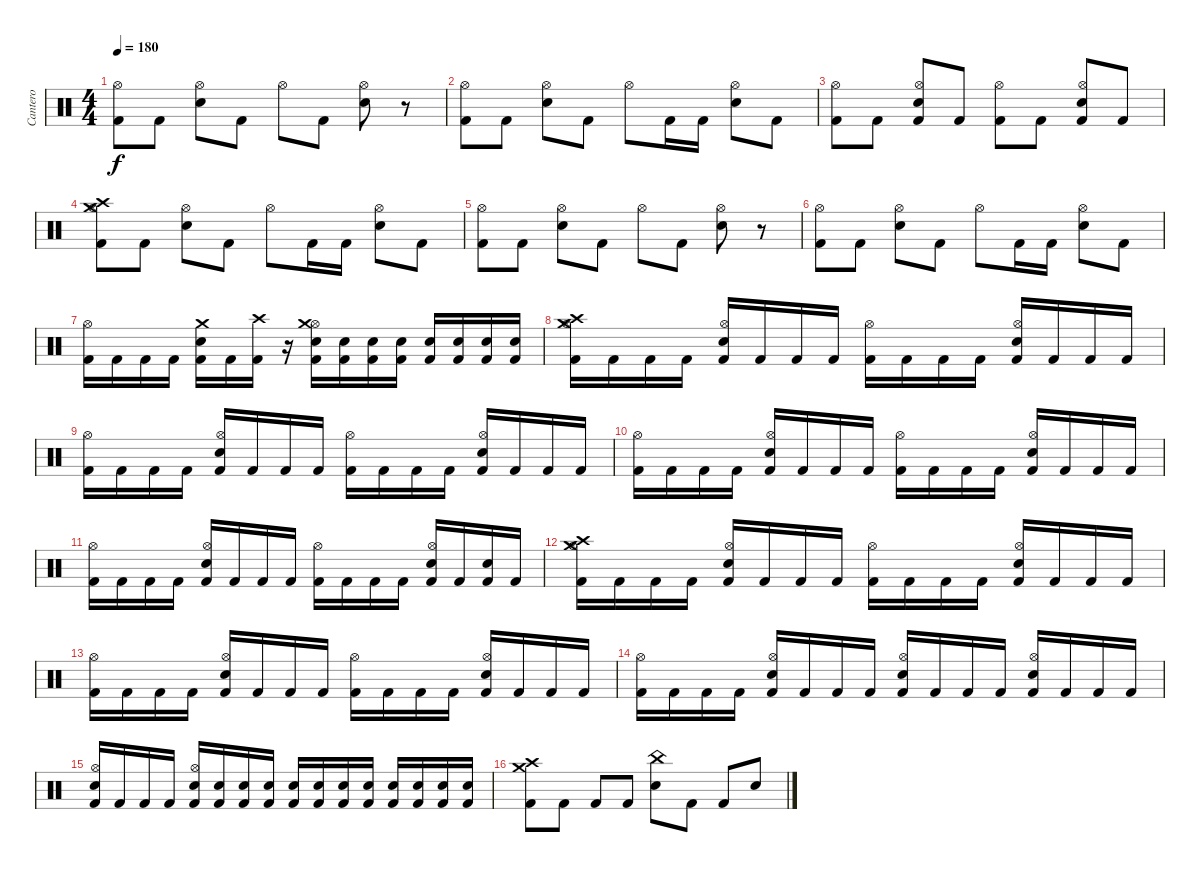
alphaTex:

\track ("Cantero" "Cantero") {instrument percussion}
\staff {score}
\articulation defaults
\ts (4 4)
\tempo 180
\clef neutral
\ks c
("Kick (hit) 2" "Hi-Hat (open)").8{dy f} "Kick (hit) 2".8 ("Electric Snare (hit)" "Hi-Hat (open)").8 "Kick (hit) 2".8 "Hi-Hat (open)".8 "Kick (hit) 2".8 ("Electric Snare (hit)" "Hi-Hat (open)").8 r.8 |
("Kick (hit) 2" "Hi-Hat (open)").8 "Kick (hit) 2".8 ("Electric Snare (hit)" "Hi-Hat (open)").8 "Kick (hit) 2".8 "Hi-Hat (open)".8 "Kick (hit) 2".16 "Kick (hit) 2".16 ("Electric Snare (hit)" "Hi-Hat (open)").8 "Kick (hit) 2".8 |
("Kick (hit) 2" "Hi-Hat (open)").8 "Kick (hit) 2".8 ("Electric Snare (hit)" "Hi-Hat (open)" "Kick (hit) 2").8 "Kick (hit) 2".8 ("Hi-Hat (open)" "Kick (hit) 2").8 "Kick (hit) 2".8 ("Electric Snare (hit)" "Hi-Hat (open)" "Kick (hit) 2").8 "Kick (hit) 2".8 |
("Kick (hit) 2" "Hi-Hat (open)" "Crash high (hit)" "Crash medium (hit)").8 "Kick (hit) 2".8 ("Electric Snare (hit)" "Hi-Hat (open)").8 "Kick (hit) 2".8 "Hi-Hat (open)".8 "Kick (hit) 2".16 "Kick (hit) 2".16 ("Electric Snare (hit)" "Hi-Hat (open)").8 "Kick (hit) 2".8 |
("Kick (hit) 2" "Hi-Hat (open)").8 "Kick (hit) 2".8 ("Electric Snare (hit)" "Hi-Hat (open)").8 "Kick (hit) 2".8 "Hi-Hat (open)".8 "Kick (hit) 2".8 ("Electric Snare (hit)" "Hi-Hat (open)").8 r.8 |
("Kick (hit) 2" "Hi-Hat (open)").8 "Kick (hit) 2".8 ("Electric Snare (hit)" "Hi-Hat (open)").8 "Kick (hit) 2".8 "Hi-Hat (open)".8 "Kick (hit) 2".16 "Kick (hit) 2".16 ("Electric Snare (hit)" "Hi-Hat (open)").8 "Kick (hit) 2".8 |
("Kick (hit) 2" "Hi-Hat (open)").16 "Kick (hit) 2".16 "Kick (hit) 2".16 "Kick (hit) 2".16 ("Kick (hit) 2" "Electric Snare (hit)" "Crash medium (hit)").16 "Kick (hit) 2".16 ("Kick (hit) 2" "Crash high (hit)").16 r.16 ("Kick (hit) 2" "Hi-Hat (open)" "Electric Snare (hit)" "Crash medium (hit)").16 ("Kick (hit) 2" "Electric Snare (hit)").16 ("Kick (hit) 2" "Electric Snare (hit)").16 ("Kick (hit) 2" "Electric Snare (hit)").16 ("Kick (hit) 2" "Electric Snare (hit)").16 ("Kick (hit) 2" "Electric Snare (hit)").16 ("Kick (hit) 2" "Electric Snare (hit)").16 ("Kick (hit) 2" "Electric Snare (hit)").16 |
("Kick (hit) 2" "Hi-Hat (open)" "Crash high (hit)" "Crash medium (hit)").16 "Kick (hit) 2".16 "Kick (hit) 2".16 "Kick (hit) 2".16 ("Kick (hit) 2" "Electric Snare (hit)" "Hi-Hat (open)").16 "Kick (hit) 2".16 "Kick (hit) 2".16 "Kick (hit) 2".16 ("Kick (hit) 2" "Hi-Hat (open)").16 "Kick (hit) 2".16 "Kick (hit) 2".16 "Kick (hit) 2".16 ("Kick (hit) 2" "Electric Snare (hit)" "Hi-Hat (open)").16 "Kick (hit) 2".16 "Kick (hit) 2".16 "Kick (hit) 2".16 |
("Kick (hit) 2" "Hi-Hat (open)").16 "Kick (hit) 2".16 "Kick (hit) 2".16 "Kick (hit) 2".16 ("Kick (hit) 2" "Electric Snare (hit)" "Hi-Hat (open)").16 "Kick (hit) 2".16 "Kick (hit) 2".16 "Kick (hit) 2".16 ("Kick (hit) 2" "Hi-Hat (open)").16 "Kick (hit) 2".16 "Kick (hit) 2".16 "Kick (hit) 2".16 ("Kick (hit) 2" "Electric Snare (hit)" "Hi-Hat (open)").16 "Kick (hit) 2".16 "Kick (hit) 2".16 "Kick (hit) 2".16 |
("Kick (hit) 2" "Hi-Hat (open)").16 "Kick (hit) 2".16 "Kick (hit) 2".16 "Kick (hit) 2".16 ("Kick (hit) 2" "Electric Snare (hit)" "Hi-Hat (open)").16 "Kick (hit) 2".16 "Kick (hit) 2".16 "Kick (hit) 2".16 ("Kick (hit) 2" "Hi-Hat (open)").16 "Kick (hit) 2".16 "Kick (hit) 2".16 "Kick (hit) 2".16 ("Kick (hit) 2" "Electric Snare (hit)" "Hi-Hat (open)").16 "Kick (hit) 2".16 "Kick (hit) 2".16 "Kick (hit) 2".16 |
("Kick (hit) 2" "Hi-Hat (open)").16 "Kick (hit) 2".16 "Kick (hit) 2".16 "Kick (hit) 2".16 ("Kick (hit) 2" "Electric Snare (hit)" "Hi-Hat (open)").16 "Kick (hit) 2".16 "Kick (hit) 2".16 "Kick (hit) 2".16 ("Kick (hit) 2" "Hi-Hat (open)").16 "Kick (hit) 2".16 "Kick (hit) 2".16 "Kick (hit) 2".16 ("Kick (hit) 2" "Electric Snare (hit)" "Hi-Hat (open)").16 "Kick (hit) 2".16 ("Kick (hit) 2" "Electric Snare (hit)").16 "Kick (hit) 2".16 |
("Kick (hit) 2" "Hi-Hat (open)" "Crash high (hit)" "Crash medium (hit)").16 "Kick (hit) 2".16 "Kick (hit) 2".16 "Kick (hit) 2".16 ("Kick (hit) 2" "Electric Snare (hit)" "Hi-Hat (open)").16 "Kick (hit) 2".16 "Kick (hit) 2".16 "Kick (hit) 2".16 ("Kick (hit) 2" "Hi-Hat (open)").16 "Kick (hit) 2".16 "Kick (hit) 2".16 "Kick (hit) 2".16 ("Kick (hit) 2" "Electric Snare (hit)" "Hi-Hat (open)").16 "Kick (hit) 2".16 "Kick (hit) 2".16 "Kick (hit) 2".16 |
("Kick (hit) 2" "Hi-Hat (open)").16 "Kick (hit) 2".16 "Kick (hit) 2".16 "Kick (hit) 2".16 ("Kick (hit) 2" "Electric Snare (hit)" "Hi-Hat (open)").16 "Kick (hit) 2".16 "Kick (hit) 2".16 "Kick (hit) 2".16 ("Kick (hit) 2" "Hi-Hat (open)").16 "Kick (hit) 2".16 "Kick (hit) 2".16 "Kick (hit) 2".16 ("Kick (hit) 2" "Electric Snare (hit)" "Hi-Hat (open)").16 "Kick (hit) 2".16 "Kick (hit) 2".16 "Kick (hit) 2".16 |
("Kick (hit) 2" "Hi-Hat (open)").16 "Kick (hit) 2".16 "Kick (hit) 2".16 "Kick (hit) 2".16 ("Kick (hit) 2" "Electric Snare (hit)" "Hi-Hat (open)").16 "Kick (hit) 2".16 "Kick (hit) 2".16 "Kick (hit) 2".16 ("Kick (hit) 2" "Hi-Hat (open)" "Electric Snare (hit)").16 "Kick (hit) 2".16 "Kick (hit) 2".16 "Kick (hit) 2".16 ("Kick (hit) 2" "Electric Snare (hit)" "Hi-Hat (open)").16 "Kick (hit) 2".16 "Kick (hit) 2".16 "Kick (hit) 2".16 |
("Kick (hit) 2" "Hi-Hat (open)" "Electric Snare (hit)").16 "Kick (hit) 2".16 "Kick (hit) 2".16 "Kick (hit) 2".16 ("Kick (hit) 2" "Electric Snare (hit)" "Hi-Hat (open)").16 ("Kick (hit) 2" "Electric Snare (hit)").16 ("Kick (hit) 2" "Electric Snare (hit)").16 ("Kick (hit) 2" "Electric Snare (hit)").16 ("Kick (hit) 2" "Electric Snare (hit)").16 ("Kick (hit) 2" "Electric Snare (hit)").16 ("Kick (hit) 2" "Electric Snare (hit)").16 ("Kick (hit) 2" "Electric Snare (hit)").16 ("Kick (hit) 2" "Electric Snare (hit)").16 ("Kick (hit) 2" "Electric Snare (hit)").16 ("Kick (hit) 2" "Electric Snare (hit)").16 ("Kick (hit) 2" "Electric Snare (hit)").16 |
("Kick (hit) 2" "Crash medium (hit)" "Crash high (hit)").8 "Kick (hit) 2".8 "Kick (hit) 2".8 "Kick (hit) 2".8 ("Electric Snare (hit)" "China (hit)").8 "Kick (hit) 2".8 "Kick (hit) 2".8 "Electric Snare (hit)".8
